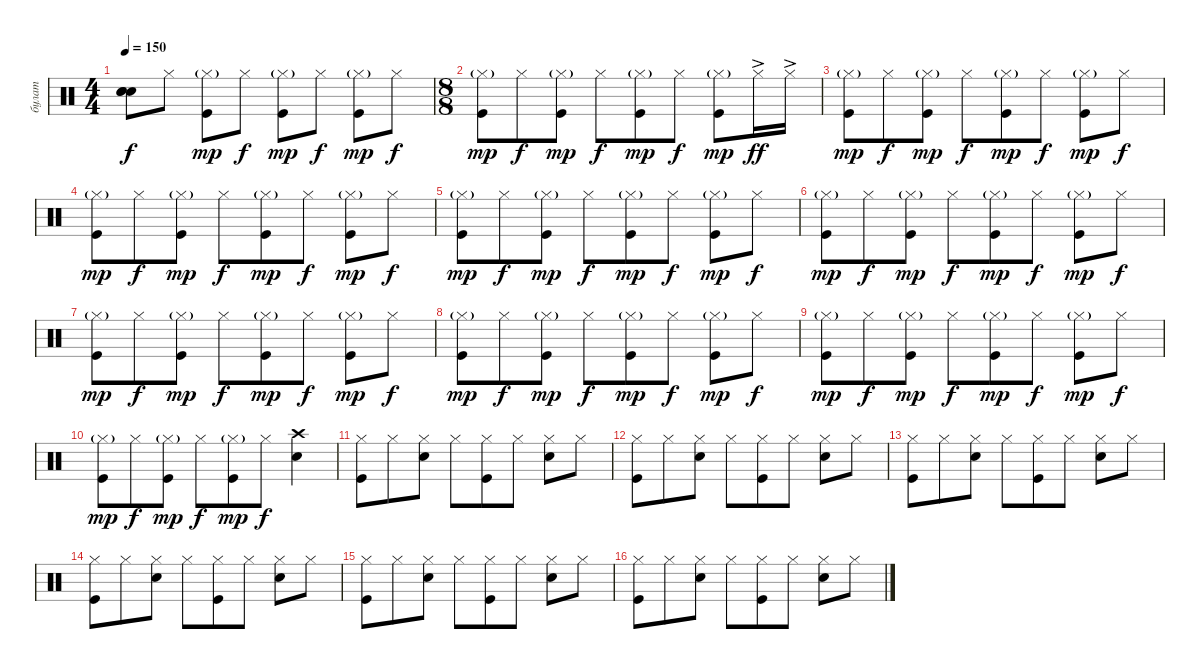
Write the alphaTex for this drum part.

\track ("булат" "булат") {instrument percussion}
\staff {score}
\articulation defaults
\ts (4 4)
\tempo 150
\clef neutral
\ks c
("Snare (hit)"{t} "Snare (hit)"{t} "Snare (hit)"{t}).8{dy f} "Hi-Hat (closed)".8 ("Hi-Hat (closed)"{g} "Kick (hit)").8{dy mp} "Hi-Hat (closed)".8{dy f} ("Hi-Hat (closed)"{g} "Kick (hit)").8{dy mp} "Hi-Hat (closed)".8{dy f} ("Hi-Hat (closed)"{g} "Kick (hit)").8{dy mp} "Hi-Hat (closed)".8{dy f} |
\ts (8 8)
("Hi-Hat (closed)"{g} "Kick (hit)").8{dy mp} "Hi-Hat (closed)".8{dy f} ("Hi-Hat (closed)"{g} "Kick (hit)").8{dy mp} "Hi-Hat (closed)".8{dy f} ("Hi-Hat (closed)"{g} "Kick (hit)").8{dy mp} "Hi-Hat (closed)".8{dy f} ("Hi-Hat (closed)"{g} "Kick (hit)").8{dy mp} "Hi-Hat (closed)"{ac}.16{dy ff} "Hi-Hat (closed)"{ac}.16 |
("Hi-Hat (closed)"{g} "Kick (hit)").8{dy mp} "Hi-Hat (closed)".8{dy f} ("Hi-Hat (closed)"{g} "Kick (hit)").8{dy mp} "Hi-Hat (closed)".8{dy f} ("Hi-Hat (closed)"{g} "Kick (hit)").8{dy mp} "Hi-Hat (closed)".8{dy f} ("Hi-Hat (closed)"{g} "Kick (hit)").8{dy mp} "Hi-Hat (closed)".8{dy f} |
("Hi-Hat (closed)"{g} "Kick (hit)").8{dy mp} "Hi-Hat (closed)".8{dy f} ("Hi-Hat (closed)"{g} "Kick (hit)").8{dy mp} "Hi-Hat (closed)".8{dy f} ("Hi-Hat (closed)"{g} "Kick (hit)").8{dy mp} "Hi-Hat (closed)".8{dy f} ("Hi-Hat (closed)"{g} "Kick (hit)").8{dy mp} "Hi-Hat (closed)".8{dy f} |
("Hi-Hat (closed)"{g} "Kick (hit)").8{dy mp} "Hi-Hat (closed)".8{dy f} ("Hi-Hat (closed)"{g} "Kick (hit)").8{dy mp} "Hi-Hat (closed)".8{dy f} ("Hi-Hat (closed)"{g} "Kick (hit)").8{dy mp} "Hi-Hat (closed)".8{dy f} ("Hi-Hat (closed)"{g} "Kick (hit)").8{dy mp} "Hi-Hat (closed)".8{dy f} |
("Hi-Hat (closed)"{g} "Kick (hit)").8{dy mp} "Hi-Hat (closed)".8{dy f} ("Hi-Hat (closed)"{g} "Kick (hit)").8{dy mp} "Hi-Hat (closed)".8{dy f} ("Hi-Hat (closed)"{g} "Kick (hit)").8{dy mp} "Hi-Hat (closed)".8{dy f} ("Hi-Hat (closed)"{g} "Kick (hit)").8{dy mp} "Hi-Hat (closed)".8{dy f} |
("Hi-Hat (closed)"{g} "Kick (hit)").8{dy mp} "Hi-Hat (closed)".8{dy f} ("Hi-Hat (closed)"{g} "Kick (hit)").8{dy mp} "Hi-Hat (closed)".8{dy f} ("Hi-Hat (closed)"{g} "Kick (hit)").8{dy mp} "Hi-Hat (closed)".8{dy f} ("Hi-Hat (closed)"{g} "Kick (hit)").8{dy mp} "Hi-Hat (closed)".8{dy f} |
("Hi-Hat (closed)"{g} "Kick (hit)").8{dy mp} "Hi-Hat (closed)".8{dy f} ("Hi-Hat (closed)"{g} "Kick (hit)").8{dy mp} "Hi-Hat (closed)".8{dy f} ("Hi-Hat (closed)"{g} "Kick (hit)").8{dy mp} "Hi-Hat (closed)".8{dy f} ("Hi-Hat (closed)"{g} "Kick (hit)").8{dy mp} "Hi-Hat (closed)".8{dy f} |
("Hi-Hat (closed)"{g} "Kick (hit)").8{dy mp} "Hi-Hat (closed)".8{dy f} ("Hi-Hat (closed)"{g} "Kick (hit)").8{dy mp} "Hi-Hat (closed)".8{dy f} ("Hi-Hat (closed)"{g} "Kick (hit)").8{dy mp} "Hi-Hat (closed)".8{dy f} ("Hi-Hat (closed)"{g} "Kick (hit)").8{dy mp} "Hi-Hat (closed)".8{dy f} |
("Hi-Hat (closed)"{g} "Kick (hit)").8{dy mp} "Hi-Hat (closed)".8{dy f} ("Hi-Hat (closed)"{g} "Kick (hit)").8{dy mp} "Hi-Hat (closed)".8{dy f} ("Hi-Hat (closed)"{g} "Kick (hit)").8{dy mp} "Hi-Hat (closed)".8{dy f} ("Snare (hit) 2" "Crash high (hit)").4 |
("Hi-Hat (closed)" "Kick (hit)").8 "Hi-Hat (closed)".8 ("Hi-Hat (closed)" "Snare (hit) 2").8 "Hi-Hat (closed)".8 ("Hi-Hat (closed)" "Kick (hit)").8 "Hi-Hat (closed)".8 ("Hi-Hat (closed)" "Snare (hit) 2").8 "Hi-Hat (closed)".8 |
("Hi-Hat (closed)" "Kick (hit)").8 "Hi-Hat (closed)".8 ("Hi-Hat (closed)" "Snare (hit) 2").8 "Hi-Hat (closed)".8 ("Hi-Hat (closed)" "Kick (hit)").8 "Hi-Hat (closed)".8 ("Hi-Hat (closed)" "Snare (hit) 2").8 "Hi-Hat (closed)".8 |
("Hi-Hat (closed)" "Kick (hit)").8 "Hi-Hat (closed)".8 ("Hi-Hat (closed)" "Snare (hit) 2").8 "Hi-Hat (closed)".8 ("Hi-Hat (closed)" "Kick (hit)").8 "Hi-Hat (closed)".8 ("Hi-Hat (closed)" "Snare (hit) 2").8 "Hi-Hat (closed)".8 |
("Hi-Hat (closed)" "Kick (hit)").8 "Hi-Hat (closed)".8 ("Hi-Hat (closed)" "Snare (hit) 2").8 "Hi-Hat (closed)".8 ("Hi-Hat (closed)" "Kick (hit)").8 "Hi-Hat (closed)".8 ("Hi-Hat (closed)" "Snare (hit) 2").8 "Hi-Hat (closed)".8 |
("Hi-Hat (closed)" "Kick (hit)").8 "Hi-Hat (closed)".8 ("Hi-Hat (closed)" "Snare (hit) 2").8 "Hi-Hat (closed)".8 ("Hi-Hat (closed)" "Kick (hit)").8 "Hi-Hat (closed)".8 ("Hi-Hat (closed)" "Snare (hit) 2").8 "Hi-Hat (closed)".8 |
("Hi-Hat (closed)" "Kick (hit)").8 "Hi-Hat (closed)".8 ("Hi-Hat (closed)" "Snare (hit) 2").8 "Hi-Hat (closed)".8 ("Hi-Hat (closed)" "Kick (hit)").8 "Hi-Hat (closed)".8 ("Hi-Hat (closed)" "Snare (hit) 2").8 "Hi-Hat (closed)".8
